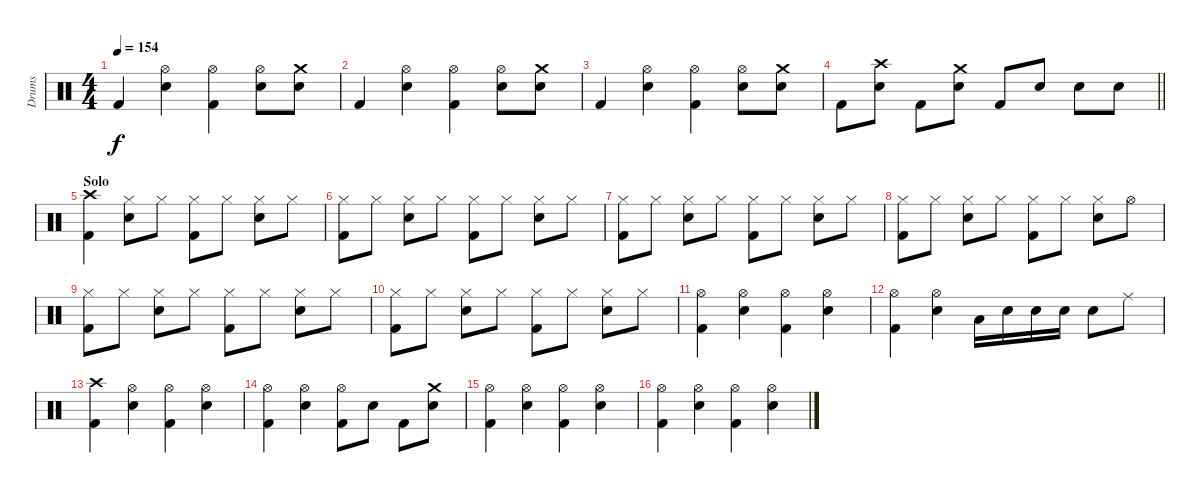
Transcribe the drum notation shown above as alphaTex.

\track ("Drums" "Drums") {instrument percussion}
\staff {score}
\articulation defaults
\ts (4 4)
\tempo 154
\clef neutral
\ks c "Kick (hit) 2".4{dy f}
("Hi-Hat (open)" "Snare (hit) 2").4 ("Hi-Hat (open)" "Kick (hit) 2").4 ("Hi-Hat (open)" "Snare (hit) 2").8 ("Crash medium (hit)" "Snare (hit) 2").8 |
"Kick (hit) 2".4 ("Hi-Hat (open)" "Snare (hit) 2").4 ("Hi-Hat (open)" "Kick (hit) 2").4 ("Hi-Hat (open)" "Snare (hit) 2").8 ("Crash medium (hit)" "Snare (hit) 2").8 |
"Kick (hit) 2".4 ("Hi-Hat (open)" "Snare (hit) 2").4 ("Hi-Hat (open)" "Kick (hit) 2").4 ("Hi-Hat (open)" "Snare (hit) 2").8 ("Crash medium (hit)" "Snare (hit) 2").8 |
\barLineRight lightlight "Kick (hit) 2".8
("Crash high (hit)" "Snare (hit) 2").8 "Kick (hit) 2".8 ("Crash medium (hit)" "Snare (hit) 2").8 "Kick (hit) 2".8 "Snare (hit) 2".8 "Snare (hit) 2".8 "Snare (hit) 2".8 |
\section ("" "Solo")
("Crash high (hit)" "Kick (hit) 2").4 ("Hi-Hat (closed)" "Snare (hit) 2").8 "Hi-Hat (closed)".8 ("Hi-Hat (closed)" "Kick (hit) 2").8 "Hi-Hat (closed)".8 ("Hi-Hat (closed)" "Snare (hit) 2").8 "Hi-Hat (closed)".8 |
("Hi-Hat (closed)" "Kick (hit) 2").8 "Hi-Hat (closed)".8 ("Hi-Hat (closed)" "Snare (hit) 2").8 "Hi-Hat (closed)".8 ("Hi-Hat (closed)" "Kick (hit) 2").8 "Hi-Hat (closed)".8 ("Hi-Hat (closed)" "Snare (hit) 2").8 "Hi-Hat (closed)".8 |
("Hi-Hat (closed)" "Kick (hit) 2").8 "Hi-Hat (closed)".8 ("Hi-Hat (closed)" "Snare (hit) 2").8 "Hi-Hat (closed)".8 ("Hi-Hat (closed)" "Kick (hit) 2").8 "Hi-Hat (closed)".8 ("Hi-Hat (closed)" "Snare (hit) 2").8 "Hi-Hat (closed)".8 |
("Hi-Hat (closed)" "Kick (hit) 2").8 "Hi-Hat (closed)".8 ("Hi-Hat (closed)" "Snare (hit) 2").8 "Hi-Hat (closed)".8 ("Hi-Hat (closed)" "Kick (hit) 2").8 "Hi-Hat (closed)".8 ("Hi-Hat (closed)" "Snare (hit) 2").8 "Hi-Hat (open)".8 |
("Hi-Hat (closed)" "Kick (hit) 2").8 "Hi-Hat (closed)".8 ("Hi-Hat (closed)" "Snare (hit) 2").8 "Hi-Hat (closed)".8 ("Hi-Hat (closed)" "Kick (hit) 2").8 "Hi-Hat (closed)".8 ("Hi-Hat (closed)" "Snare (hit) 2").8 "Hi-Hat (closed)".8 |
("Hi-Hat (closed)" "Kick (hit) 2").8 "Hi-Hat (closed)".8 ("Hi-Hat (closed)" "Snare (hit) 2").8 "Hi-Hat (closed)".8 ("Hi-Hat (closed)" "Kick (hit) 2").8 "Hi-Hat (closed)".8 ("Hi-Hat (closed)" "Snare (hit) 2").8 "Hi-Hat (closed)".8 |
("Hi-Hat (open)" "Kick (hit) 2").4 ("Hi-Hat (open)" "Snare (hit) 2").4 ("Hi-Hat (open)" "Kick (hit) 2").4 ("Hi-Hat (open)" "Snare (hit) 2").4 |
("Hi-Hat (open)" "Kick (hit) 2").4 ("Hi-Hat (open)" "Snare (hit) 2").4 "Low Tom (hit)".16 "Snare (hit) 2".16 "Snare (hit) 2".16 "Snare (hit) 2".16 "Snare (hit) 2".8 "Ride (middle)".8 |
("Crash high (hit)" "Kick (hit) 2").4 ("Hi-Hat (open)" "Snare (hit) 2").4 ("Hi-Hat (open)" "Kick (hit) 2").4 ("Hi-Hat (open)" "Snare (hit) 2").4 |
("Hi-Hat (open)" "Kick (hit) 2").4 ("Hi-Hat (open)" "Snare (hit) 2").4 ("Hi-Hat (open)" "Kick (hit) 2").8 "Snare (hit) 2".8 "Kick (hit) 2".8 ("Crash medium (hit)" "Snare (hit) 2").8 |
("Hi-Hat (open)" "Kick (hit) 2").4 ("Hi-Hat (open)" "Snare (hit) 2").4 ("Hi-Hat (open)" "Kick (hit) 2").4 ("Hi-Hat (open)" "Snare (hit) 2").4 |
("Hi-Hat (open)" "Kick (hit) 2").4 ("Hi-Hat (open)" "Snare (hit) 2").4 ("Hi-Hat (open)" "Kick (hit) 2").4 ("Hi-Hat (open)" "Snare (hit) 2").4
